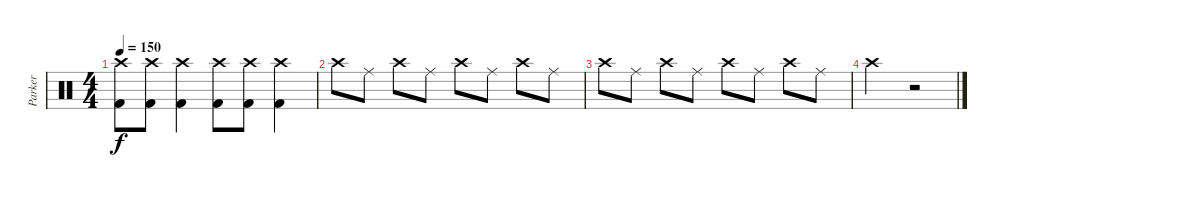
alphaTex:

\track ("Parker" "Parker") {instrument percussion}
\staff {score}
\articulation defaults
\ts (4 4)
\tempo 150
\clef neutral
\ks c
("Crash high (hit)" "Kick (hit) 2").8{dy f} ("Crash high (hit)" "Kick (hit) 2").8 ("Crash high (hit)" "Kick (hit) 2").4 ("Crash high (hit)" "Kick (hit) 2").8 ("Crash high (hit)" "Kick (hit) 2").8 ("Crash high (hit)" "Kick (hit) 2").4 |
"Crash high (hit)".8 "Ride (middle)".8 "Crash high (hit)".8 "Ride (middle)".8 "Crash high (hit)".8 "Ride (middle)".8 "Crash high (hit)".8 "Ride (middle)".8 |
"Crash high (hit)".8 "Ride (middle)".8 "Crash high (hit)".8 "Ride (middle)".8 "Crash high (hit)".8 "Ride (middle)".8 "Crash high (hit)".8 "Ride (middle)".8 |
"Crash high (hit)".2 r.2
